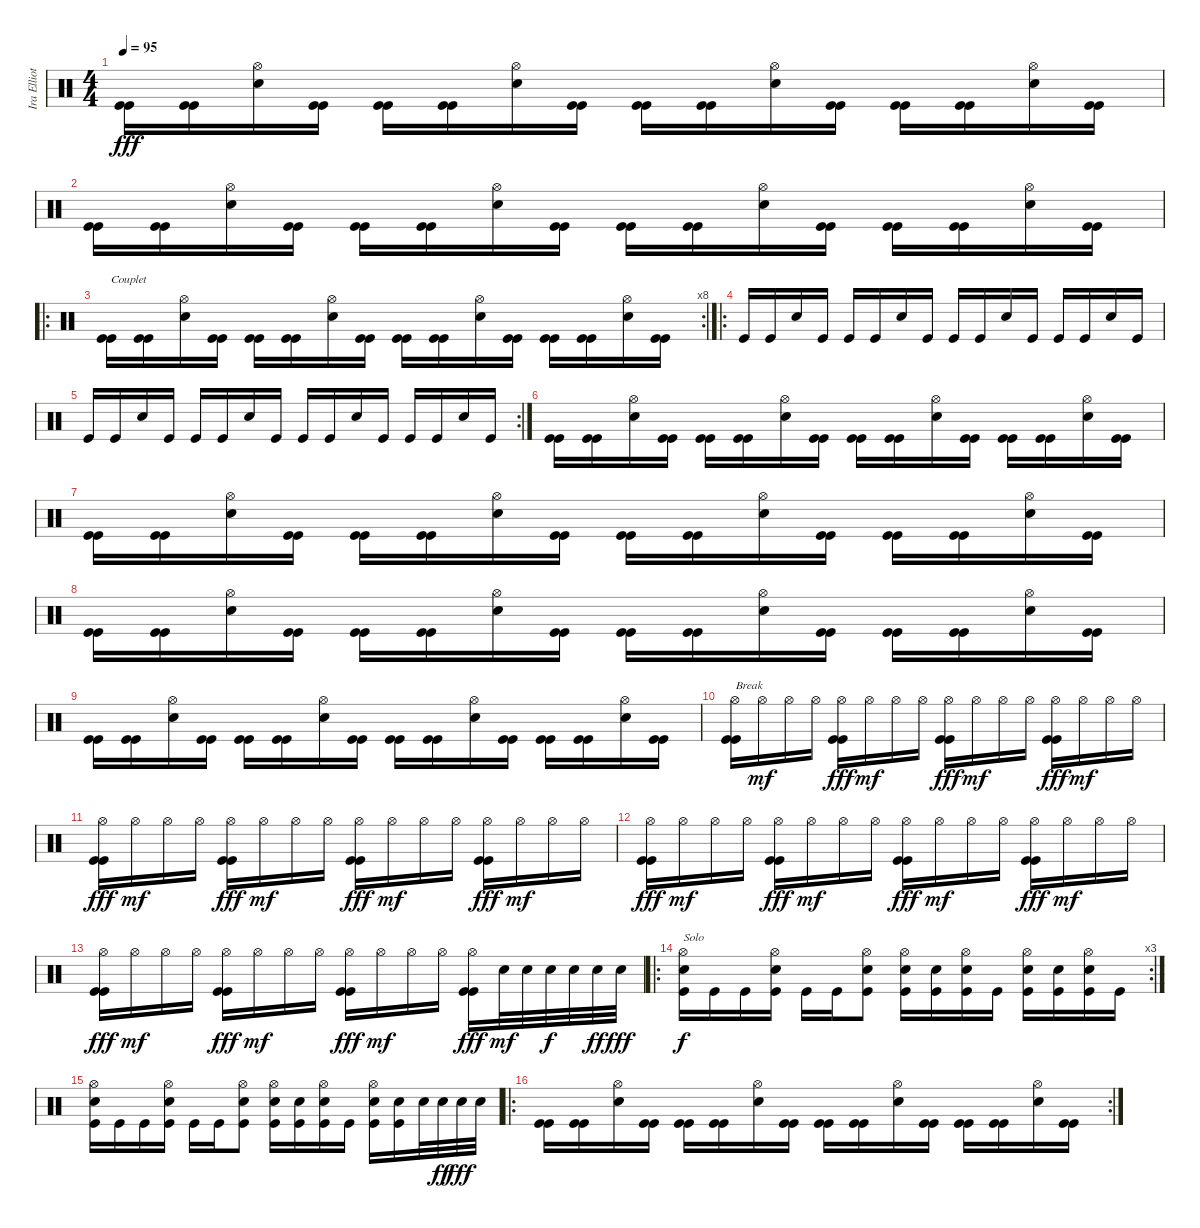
\track ("Ira Elliott" "Ira Elliot") {instrument percussion}
\staff {score}
\articulation defaults
\ts (4 4)
\tempo 95
\clef neutral
\ks c
("Kick (hit)" "Kick (hit)").16{dy fff} ("Kick (hit)" "Kick (hit)").16 ("Snare (hit) 2" "Hi-Hat (open)").16 ("Kick (hit)" "Kick (hit)").16 ("Kick (hit)" "Kick (hit)").16 ("Kick (hit)" "Kick (hit)").16 ("Snare (hit) 2" "Hi-Hat (open)").16 ("Kick (hit)" "Kick (hit)").16 ("Kick (hit)" "Kick (hit)").16 ("Kick (hit)" "Kick (hit)").16 ("Snare (hit) 2" "Hi-Hat (open)").16 ("Kick (hit)" "Kick (hit)").16 ("Kick (hit)" "Kick (hit)").16 ("Kick (hit)" "Kick (hit)").16 ("Snare (hit) 2" "Hi-Hat (open)").16 ("Kick (hit)" "Kick (hit)").16 |
("Kick (hit)" "Kick (hit)").16 ("Kick (hit)" "Kick (hit)").16 ("Snare (hit) 2" "Hi-Hat (open)").16 ("Kick (hit)" "Kick (hit)").16 ("Kick (hit)" "Kick (hit)").16 ("Kick (hit)" "Kick (hit)").16 ("Snare (hit) 2" "Hi-Hat (open)").16 ("Kick (hit)" "Kick (hit)").16 ("Kick (hit)" "Kick (hit)").16 ("Kick (hit)" "Kick (hit)").16 ("Snare (hit) 2" "Hi-Hat (open)").16 ("Kick (hit)" "Kick (hit)").16 ("Kick (hit)" "Kick (hit)").16 ("Kick (hit)" "Kick (hit)").16 ("Snare (hit) 2" "Hi-Hat (open)").16 ("Kick (hit)" "Kick (hit)").16 |
\ro
\rc 8
("Kick (hit)" "Kick (hit)").16{txt "Couplet"} ("Kick (hit)" "Kick (hit)").16 ("Snare (hit) 2" "Hi-Hat (open)").16 ("Kick (hit)" "Kick (hit)").16 ("Kick (hit)" "Kick (hit)").16 ("Kick (hit)" "Kick (hit)").16 ("Snare (hit) 2" "Hi-Hat (open)").16 ("Kick (hit)" "Kick (hit)").16 ("Kick (hit)" "Kick (hit)").16 ("Kick (hit)" "Kick (hit)").16 ("Snare (hit) 2" "Hi-Hat (open)").16 ("Kick (hit)" "Kick (hit)").16 ("Kick (hit)" "Kick (hit)").16 ("Kick (hit)" "Kick (hit)").16 ("Snare (hit) 2" "Hi-Hat (open)").16 ("Kick (hit)" "Kick (hit)").16 |
\ro "Kick (hit)".16 "Kick (hit)".16 "Snare (hit) 2".16 "Kick (hit)".16 "Kick (hit)".16 "Kick (hit)".16 "Snare (hit) 2".16 "Kick (hit)".16 "Kick (hit)".16 "Kick (hit)".16 "Snare (hit) 2".16 "Kick (hit)".16 "Kick (hit)".16 "Kick (hit)".16 "Snare (hit) 2".16 "Kick (hit)".16
|
\rc 2 "Kick (hit)".16 "Kick (hit)".16 "Snare (hit) 2".16 "Kick (hit)".16 "Kick (hit)".16 "Kick (hit)".16 "Snare (hit) 2".16 "Kick (hit)".16 "Kick (hit)".16 "Kick (hit)".16 "Snare (hit) 2".16 "Kick (hit)".16 "Kick (hit)".16 "Kick (hit)".16 "Snare (hit) 2".16 "Kick (hit)".16
|
("Kick (hit)" "Kick (hit)").16 ("Kick (hit)" "Kick (hit)").16 ("Snare (hit) 2" "Hi-Hat (open)").16 ("Kick (hit)" "Kick (hit)").16 ("Kick (hit)" "Kick (hit)").16 ("Kick (hit)" "Kick (hit)").16 ("Snare (hit) 2" "Hi-Hat (open)").16 ("Kick (hit)" "Kick (hit)").16 ("Kick (hit)" "Kick (hit)").16 ("Kick (hit)" "Kick (hit)").16 ("Snare (hit) 2" "Hi-Hat (open)").16 ("Kick (hit)" "Kick (hit)").16 ("Kick (hit)" "Kick (hit)").16 ("Kick (hit)" "Kick (hit)").16 ("Snare (hit) 2" "Hi-Hat (open)").16 ("Kick (hit)" "Kick (hit)").16 |
("Kick (hit)" "Kick (hit)").16 ("Kick (hit)" "Kick (hit)").16 ("Snare (hit) 2" "Hi-Hat (open)").16 ("Kick (hit)" "Kick (hit)").16 ("Kick (hit)" "Kick (hit)").16 ("Kick (hit)" "Kick (hit)").16 ("Snare (hit) 2" "Hi-Hat (open)").16 ("Kick (hit)" "Kick (hit)").16 ("Kick (hit)" "Kick (hit)").16 ("Kick (hit)" "Kick (hit)").16 ("Snare (hit) 2" "Hi-Hat (open)").16 ("Kick (hit)" "Kick (hit)").16 ("Kick (hit)" "Kick (hit)").16 ("Kick (hit)" "Kick (hit)").16 ("Snare (hit) 2" "Hi-Hat (open)").16 ("Kick (hit)" "Kick (hit)").16 |
("Kick (hit)" "Kick (hit)").16 ("Kick (hit)" "Kick (hit)").16 ("Snare (hit) 2" "Hi-Hat (open)").16 ("Kick (hit)" "Kick (hit)").16 ("Kick (hit)" "Kick (hit)").16 ("Kick (hit)" "Kick (hit)").16 ("Snare (hit) 2" "Hi-Hat (open)").16 ("Kick (hit)" "Kick (hit)").16 ("Kick (hit)" "Kick (hit)").16 ("Kick (hit)" "Kick (hit)").16 ("Snare (hit) 2" "Hi-Hat (open)").16 ("Kick (hit)" "Kick (hit)").16 ("Kick (hit)" "Kick (hit)").16 ("Kick (hit)" "Kick (hit)").16 ("Snare (hit) 2" "Hi-Hat (open)").16 ("Kick (hit)" "Kick (hit)").16 |
("Kick (hit)" "Kick (hit)").16 ("Kick (hit)" "Kick (hit)").16 ("Snare (hit) 2" "Hi-Hat (open)").16 ("Kick (hit)" "Kick (hit)").16 ("Kick (hit)" "Kick (hit)").16 ("Kick (hit)" "Kick (hit)").16 ("Snare (hit) 2" "Hi-Hat (open)").16 ("Kick (hit)" "Kick (hit)").16 ("Kick (hit)" "Kick (hit)").16 ("Kick (hit)" "Kick (hit)").16 ("Snare (hit) 2" "Hi-Hat (open)").16 ("Kick (hit)" "Kick (hit)").16 ("Kick (hit)" "Kick (hit)").16 ("Kick (hit)" "Kick (hit)").16 ("Snare (hit) 2" "Hi-Hat (open)").16 ("Kick (hit)" "Kick (hit)").16 |
("Hi-Hat (open)" "Kick (hit)" "Kick (hit)").16{txt "Break"} "Hi-Hat (open)".16{dy mf} "Hi-Hat (open)".16 "Hi-Hat (open)".16 ("Hi-Hat (open)" "Kick (hit)" "Kick (hit)").16{dy fff} "Hi-Hat (open)".16{dy mf} "Hi-Hat (open)".16 "Hi-Hat (open)".16 ("Hi-Hat (open)" "Kick (hit)" "Kick (hit)").16{dy fff} "Hi-Hat (open)".16{dy mf} "Hi-Hat (open)".16 "Hi-Hat (open)".16 ("Hi-Hat (open)" "Kick (hit)" "Kick (hit)").16{dy fff} "Hi-Hat (open)".16{dy mf} "Hi-Hat (open)".16 "Hi-Hat (open)".16 |
("Hi-Hat (open)" "Kick (hit)" "Kick (hit)").16{dy fff} "Hi-Hat (open)".16{dy mf} "Hi-Hat (open)".16 "Hi-Hat (open)".16 ("Hi-Hat (open)" "Kick (hit)" "Kick (hit)").16{dy fff} "Hi-Hat (open)".16{dy mf} "Hi-Hat (open)".16 "Hi-Hat (open)".16 ("Hi-Hat (open)" "Kick (hit)" "Kick (hit)").16{dy fff} "Hi-Hat (open)".16{dy mf} "Hi-Hat (open)".16 "Hi-Hat (open)".16 ("Hi-Hat (open)" "Kick (hit)" "Kick (hit)").16{dy fff} "Hi-Hat (open)".16{dy mf} "Hi-Hat (open)".16 "Hi-Hat (open)".16 |
("Hi-Hat (open)" "Kick (hit)" "Kick (hit)").16{dy fff} "Hi-Hat (open)".16{dy mf} "Hi-Hat (open)".16 "Hi-Hat (open)".16 ("Hi-Hat (open)" "Kick (hit)" "Kick (hit)").16{dy fff} "Hi-Hat (open)".16{dy mf} "Hi-Hat (open)".16 "Hi-Hat (open)".16 ("Hi-Hat (open)" "Kick (hit)" "Kick (hit)").16{dy fff} "Hi-Hat (open)".16{dy mf} "Hi-Hat (open)".16 "Hi-Hat (open)".16 ("Hi-Hat (open)" "Kick (hit)" "Kick (hit)").16{dy fff} "Hi-Hat (open)".16{dy mf} "Hi-Hat (open)".16 "Hi-Hat (open)".16 |
("Hi-Hat (open)" "Kick (hit)" "Kick (hit)").16{dy fff} "Hi-Hat (open)".16{dy mf} "Hi-Hat (open)".16 "Hi-Hat (open)".16 ("Hi-Hat (open)" "Kick (hit)" "Kick (hit)").16{dy fff} "Hi-Hat (open)".16{dy mf} "Hi-Hat (open)".16 "Hi-Hat (open)".16 ("Hi-Hat (open)" "Kick (hit)" "Kick (hit)").16{dy fff} "Hi-Hat (open)".16{dy mf} "Hi-Hat (open)".16 "Hi-Hat (open)".16 ("Hi-Hat (open)" "Kick (hit)" "Kick (hit)").16{dy fff} "Snare (hit) 2".32{dy mf} "Snare (hit) 2".32 "Snare (hit) 2".32{dy f} "Snare (hit) 2".32 "Snare (hit) 2".32{dy ff} "Snare (hit) 2".32{dy fff} |
\ro
\rc 3
("Hi-Hat (open)" "Snare (hit) 2" "Kick (hit)").16{txt "Solo" dy f} "Kick (hit)".16 "Kick (hit)".16 ("Hi-Hat (open)" "Snare (hit) 2" "Kick (hit)").16 "Kick (hit)".16 "Kick (hit)".16 ("Snare (hit) 2" "Hi-Hat (open)" "Kick (hit)").8 ("Hi-Hat (open)" "Snare (hit) 2" "Kick (hit)").16 ("Snare (hit) 2" "Kick (hit)").16 ("Hi-Hat (open)" "Snare (hit) 2" "Kick (hit)").16 "Kick (hit)".16 ("Hi-Hat (open)" "Snare (hit) 2" "Kick (hit)").16 ("Snare (hit) 2" "Kick (hit)").16 ("Hi-Hat (open)" "Snare (hit) 2" "Kick (hit)").16 "Kick (hit)".16 |
("Hi-Hat (open)" "Snare (hit) 2" "Kick (hit)").16 "Kick (hit)".16 "Kick (hit)".16 ("Hi-Hat (open)" "Snare (hit) 2" "Kick (hit)").16 "Kick (hit)".16 "Kick (hit)".16 ("Snare (hit) 2" "Hi-Hat (open)" "Kick (hit)").8 ("Hi-Hat (open)" "Snare (hit) 2" "Kick (hit)").16 ("Snare (hit) 2" "Kick (hit)").16 ("Hi-Hat (open)" "Snare (hit) 2" "Kick (hit)").16 "Kick (hit)".16 ("Hi-Hat (open)" "Snare (hit) 2" "Kick (hit)").16 ("Snare (hit) 2" "Kick (hit)").16 "Snare (hit) 2".32 "Snare (hit) 2".32{dy ff} "Snare (hit) 2".32{dy fff} "Snare (hit) 2".32 |
\ro
\rc 2
("Kick (hit)" "Kick (hit)").16 ("Kick (hit)" "Kick (hit)").16 ("Snare (hit) 2" "Hi-Hat (open)").16 ("Kick (hit)" "Kick (hit)").16 ("Kick (hit)" "Kick (hit)").16 ("Kick (hit)" "Kick (hit)").16 ("Snare (hit) 2" "Hi-Hat (open)").16 ("Kick (hit)" "Kick (hit)").16 ("Kick (hit)" "Kick (hit)").16 ("Kick (hit)" "Kick (hit)").16 ("Snare (hit) 2" "Hi-Hat (open)").16 ("Kick (hit)" "Kick (hit)").16 ("Kick (hit)" "Kick (hit)").16 ("Kick (hit)" "Kick (hit)").16 ("Snare (hit) 2" "Hi-Hat (open)").16 ("Kick (hit)" "Kick (hit)").16
